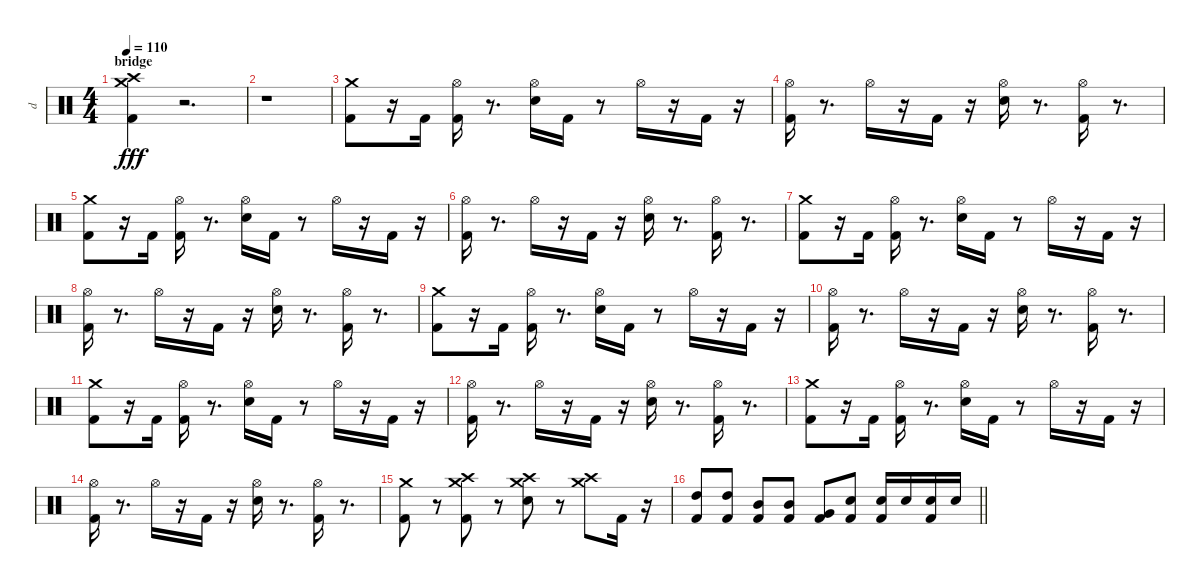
\track ("d" "d") {instrument percussion}
\staff {score}
\articulation defaults
\ts (4 4)
\section ("" "bridge")
\tempo 110
\clef neutral
\ks c
("Crash high (hit)" "Kick (hit) 2" "Crash medium (hit)").4{dy fff} r.2{d} |
r.1 |
("Crash medium (hit)" "Kick (hit) 2").8 r.16 "Kick (hit) 2".16 ("Hi-Hat (open)" "Kick (hit) 2").16 r.8{d} ("Electric Snare (hit)" "Hi-Hat (open)").16 "Kick (hit) 2".16 r.8 "Hi-Hat (open)".16 r.16 "Kick (hit) 2".16 r.16 |
("Hi-Hat (open)" "Kick (hit) 2").16 r.8{d} "Hi-Hat (open)".16 r.16 "Kick (hit) 2".16 r.16 ("Electric Snare (hit)" "Hi-Hat (open)").16 r.8{d} ("Hi-Hat (open)" "Kick (hit) 2").16 r.8{d} |
("Kick (hit) 2" "Crash medium (hit)").8 r.16 "Kick (hit) 2".16 ("Kick (hit) 2" "Hi-Hat (open)").16 r.8{d} ("Electric Snare (hit)" "Hi-Hat (open)").16 "Kick (hit) 2".16 r.8 "Hi-Hat (open)".16 r.16 "Kick (hit) 2".16 r.16 |
("Hi-Hat (open)" "Kick (hit) 2").16 r.8{d} "Hi-Hat (open)".16 r.16 "Kick (hit) 2".16 r.16 ("Electric Snare (hit)" "Hi-Hat (open)").16 r.8{d} ("Hi-Hat (open)" "Kick (hit) 2").16 r.8{d} |
("Kick (hit) 2" "Crash medium (hit)").8 r.16 "Kick (hit) 2".16 ("Kick (hit) 2" "Hi-Hat (open)").16 r.8{d} ("Electric Snare (hit)" "Hi-Hat (open)").16 "Kick (hit) 2".16 r.8 "Hi-Hat (open)".16 r.16 "Kick (hit) 2".16 r.16 |
("Hi-Hat (open)" "Kick (hit) 2").16 r.8{d} "Hi-Hat (open)".16 r.16 "Kick (hit) 2".16 r.16 ("Electric Snare (hit)" "Hi-Hat (open)").16 r.8{d} ("Hi-Hat (open)" "Kick (hit) 2").16 r.8{d} |
("Kick (hit) 2" "Crash medium (hit)").8 r.16 "Kick (hit) 2".16 ("Hi-Hat (open)" "Kick (hit) 2").16 r.8{d} ("Hi-Hat (open)" "Electric Snare (hit)").16 "Kick (hit) 2".16 r.8 "Hi-Hat (open)".16 r.16 "Kick (hit) 2".16 r.16 |
("Kick (hit) 2" "Hi-Hat (open)").16 r.8{d} "Hi-Hat (open)".16 r.16 "Kick (hit) 2".16 r.16 ("Hi-Hat (open)" "Electric Snare (hit)").16 r.8{d} ("Kick (hit) 2" "Hi-Hat (open)").16 r.8{d} |
("Kick (hit) 2" "Crash medium (hit)").8 r.16 "Kick (hit) 2".16 ("Kick (hit) 2" "Hi-Hat (open)").16 r.8{d} ("Hi-Hat (open)" "Electric Snare (hit)").16 "Kick (hit) 2".16 r.8 "Hi-Hat (open)".16 r.16 "Kick (hit) 2".16 r.16 |
("Kick (hit) 2" "Hi-Hat (open)").16 r.8{d} "Hi-Hat (open)".16 r.16 "Kick (hit) 2".16 r.16 ("Hi-Hat (open)" "Electric Snare (hit)").16 r.8{d} ("Kick (hit) 2" "Hi-Hat (open)").16 r.8{d} |
("Kick (hit) 2" "Crash medium (hit)").8 r.16 "Kick (hit) 2".16 ("Kick (hit) 2" "Hi-Hat (open)").16 r.8{d} ("Hi-Hat (open)" "Electric Snare (hit)").16 "Kick (hit) 2".16 r.8 "Hi-Hat (open)".16 r.16 "Kick (hit) 2".16 r.16 |
("Kick (hit) 2" "Hi-Hat (open)").16 r.8{d} "Hi-Hat (open)".16 r.16 "Kick (hit) 2".16 r.16 ("Hi-Hat (open)" "Electric Snare (hit)").16 r.8{d} ("Hi-Hat (open)" "Kick (hit) 2").16 r.8{d} |
("Crash medium (hit)" "Kick (hit) 2").8 r.8 ("Crash medium (hit)" "Kick (hit) 2" "Crash high (hit)").8 r.8 ("Crash medium (hit)" "Electric Snare (hit)" "Crash high (hit)").8 r.8 ("Crash high (hit)" "Crash medium (hit)").8 "Kick (hit) 2".16 r.16 |
\barLineRight lightlight
("Kick (hit) 2" "High Tom (hit)").8 ("Kick (hit) 2" "High Tom (hit)").8 ("Mid Tom (hit)" "Kick (hit) 2").8 ("Kick (hit) 2" "Mid Tom (hit)").8 ("Kick (hit) 2" "Very Low Tom (hit)").8 ("Electric Snare (hit)" "Kick (hit) 2").8 ("Kick (hit) 2" "Electric Snare (hit)").16 "Electric Snare (hit)".16 ("Kick (hit) 2" "Electric Snare (hit)").16 "Electric Snare (hit)".16
